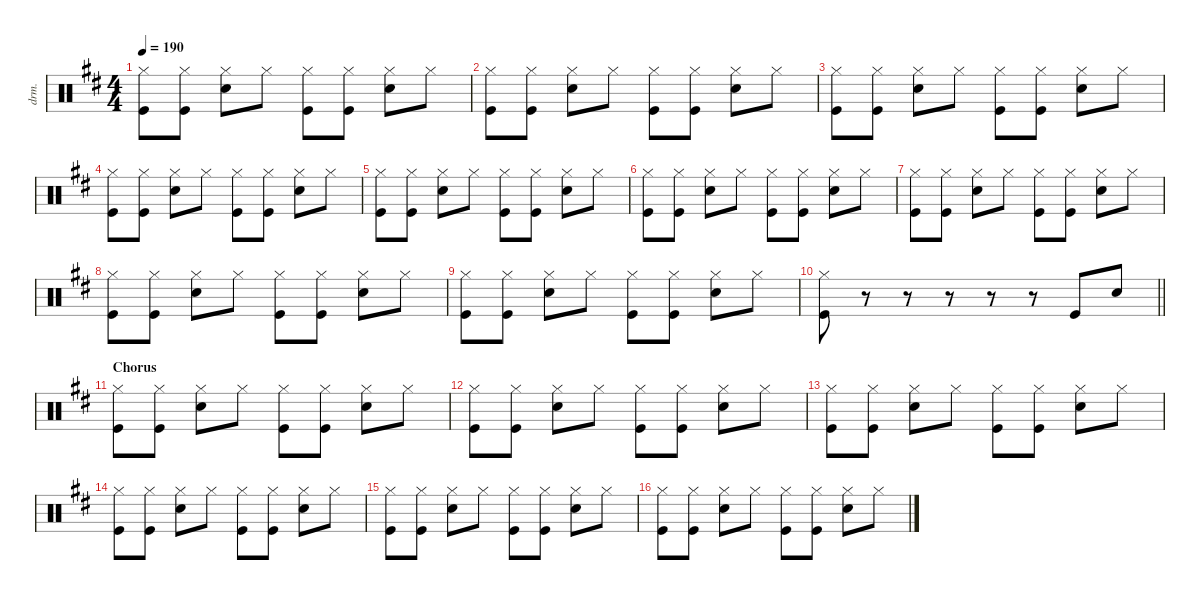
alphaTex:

\defaultSystemsLayout 4
\hideDynamics
\bracketExtendMode nobrackets
\otherSystemsTrackNameOrientation horizontal
\track ("Damon Wilson" "drm.") {instrument percussion}
\staff {score}
\articulation defaults
\ts (4 4)
\tempo 190
\clef neutral
\ks d
("Hi-Hat (closed)"{acc forcenatural} "Kick (hit)"{acc forcenatural}).8{dy f beam Down} ("Hi-Hat (closed)"{acc forcenatural} "Kick (hit)"{acc forcenatural}).8{beam Down} ("Hi-Hat (closed)"{acc forcenatural} "Snare (hit) 2"{acc forcenatural}).8{beam Down} "Hi-Hat (closed)"{acc forcenatural}.8{beam Down} ("Hi-Hat (closed)"{acc forcenatural} "Kick (hit)"{acc forcenatural}).8{beam Down} ("Hi-Hat (closed)"{acc forcenatural} "Kick (hit)"{acc forcenatural}).8{beam Down} ("Hi-Hat (closed)"{acc forcenatural} "Snare (hit) 2"{acc forcenatural}).8{beam Down} "Hi-Hat (closed)"{acc forcenatural}.8{beam Down} |
("Hi-Hat (closed)"{acc forcenatural} "Kick (hit)"{acc forcenatural}).8{beam Down} ("Hi-Hat (closed)"{acc forcenatural} "Kick (hit)"{acc forcenatural}).8{beam Down} ("Hi-Hat (closed)"{acc forcenatural} "Snare (hit) 2"{acc forcenatural}).8{beam Down} "Hi-Hat (closed)"{acc forcenatural}.8{beam Down} ("Hi-Hat (closed)"{acc forcenatural} "Kick (hit)"{acc forcenatural}).8{beam Down} ("Hi-Hat (closed)"{acc forcenatural} "Kick (hit)"{acc forcenatural}).8{beam Down} ("Hi-Hat (closed)"{acc forcenatural} "Snare (hit) 2"{acc forcenatural}).8{beam Down} "Hi-Hat (closed)"{acc forcenatural}.8{beam Down} |
("Hi-Hat (closed)"{acc forcenatural} "Kick (hit)"{acc forcenatural}).8{beam Down} ("Hi-Hat (closed)"{acc forcenatural} "Kick (hit)"{acc forcenatural}).8{beam Down} ("Hi-Hat (closed)"{acc forcenatural} "Snare (hit) 2"{acc forcenatural}).8{beam Down} "Hi-Hat (closed)"{acc forcenatural}.8{beam Down} ("Hi-Hat (closed)"{acc forcenatural} "Kick (hit)"{acc forcenatural}).8{beam Down} ("Hi-Hat (closed)"{acc forcenatural} "Kick (hit)"{acc forcenatural}).8{beam Down} ("Hi-Hat (closed)"{acc forcenatural} "Snare (hit) 2"{acc forcenatural}).8{beam Down} "Hi-Hat (closed)"{acc forcenatural}.8{beam Down} |
("Hi-Hat (closed)"{acc forcenatural} "Kick (hit)"{acc forcenatural}).8{beam Down} ("Hi-Hat (closed)"{acc forcenatural} "Kick (hit)"{acc forcenatural}).8{beam Down} ("Hi-Hat (closed)"{acc forcenatural} "Snare (hit) 2"{acc forcenatural}).8{beam Down} "Hi-Hat (closed)"{acc forcenatural}.8{beam Down} ("Hi-Hat (closed)"{acc forcenatural} "Kick (hit)"{acc forcenatural}).8{beam Down} ("Hi-Hat (closed)"{acc forcenatural} "Kick (hit)"{acc forcenatural}).8{beam Down} ("Hi-Hat (closed)"{acc forcenatural} "Snare (hit) 2"{acc forcenatural}).8{beam Down} "Hi-Hat (closed)"{acc forcenatural}.8{beam Down} |
("Hi-Hat (closed)"{acc forcenatural} "Kick (hit)"{acc forcenatural}).8{beam Down} ("Hi-Hat (closed)"{acc forcenatural} "Kick (hit)"{acc forcenatural}).8{beam Down} ("Hi-Hat (closed)"{acc forcenatural} "Snare (hit) 2"{acc forcenatural}).8{beam Down} "Hi-Hat (closed)"{acc forcenatural}.8{beam Down} ("Hi-Hat (closed)"{acc forcenatural} "Kick (hit)"{acc forcenatural}).8{beam Down} ("Hi-Hat (closed)"{acc forcenatural} "Kick (hit)"{acc forcenatural}).8{beam Down} ("Hi-Hat (closed)"{acc forcenatural} "Snare (hit) 2"{acc forcenatural}).8{beam Down} "Hi-Hat (closed)"{acc forcenatural}.8{beam Down} |
("Hi-Hat (closed)"{acc forcenatural} "Kick (hit)"{acc forcenatural}).8{beam Down} ("Hi-Hat (closed)"{acc forcenatural} "Kick (hit)"{acc forcenatural}).8{beam Down} ("Hi-Hat (closed)"{acc forcenatural} "Snare (hit) 2"{acc forcenatural}).8{beam Down} "Hi-Hat (closed)"{acc forcenatural}.8{beam Down} ("Hi-Hat (closed)"{acc forcenatural} "Kick (hit)"{acc forcenatural}).8{beam Down} ("Hi-Hat (closed)"{acc forcenatural} "Kick (hit)"{acc forcenatural}).8{beam Down} ("Hi-Hat (closed)"{acc forcenatural} "Snare (hit) 2"{acc forcenatural}).8{beam Down} "Hi-Hat (closed)"{acc forcenatural}.8{beam Down} |
("Hi-Hat (closed)"{acc forcenatural} "Kick (hit)"{acc forcenatural}).8{beam Down} ("Hi-Hat (closed)"{acc forcenatural} "Kick (hit)"{acc forcenatural}).8{beam Down} ("Hi-Hat (closed)"{acc forcenatural} "Snare (hit) 2"{acc forcenatural}).8{beam Down} "Hi-Hat (closed)"{acc forcenatural}.8{beam Down} ("Hi-Hat (closed)"{acc forcenatural} "Kick (hit)"{acc forcenatural}).8{beam Down} ("Hi-Hat (closed)"{acc forcenatural} "Kick (hit)"{acc forcenatural}).8{beam Down} ("Hi-Hat (closed)"{acc forcenatural} "Snare (hit) 2"{acc forcenatural}).8{beam Down} "Hi-Hat (closed)"{acc forcenatural}.8{beam Down} |
("Hi-Hat (closed)"{acc forcenatural} "Kick (hit)"{acc forcenatural}).8{beam Down} ("Hi-Hat (closed)"{acc forcenatural} "Kick (hit)"{acc forcenatural}).8{beam Down} ("Hi-Hat (closed)"{acc forcenatural} "Snare (hit) 2"{acc forcenatural}).8{beam Down} "Hi-Hat (closed)"{acc forcenatural}.8{beam Down} ("Hi-Hat (closed)"{acc forcenatural} "Kick (hit)"{acc forcenatural}).8{beam Down} ("Hi-Hat (closed)"{acc forcenatural} "Kick (hit)"{acc forcenatural}).8{beam Down} ("Hi-Hat (closed)"{acc forcenatural} "Snare (hit) 2"{acc forcenatural}).8{beam Down} "Hi-Hat (closed)"{acc forcenatural}.8{beam Down} |
("Hi-Hat (closed)"{acc forcenatural} "Kick (hit)"{acc forcenatural}).8{beam Down} ("Hi-Hat (closed)"{acc forcenatural} "Kick (hit)"{acc forcenatural}).8{beam Down} ("Hi-Hat (closed)"{acc forcenatural} "Snare (hit) 2"{acc forcenatural}).8{beam Down} "Hi-Hat (closed)"{acc forcenatural}.8{beam Down} ("Hi-Hat (closed)"{acc forcenatural} "Kick (hit)"{acc forcenatural}).8{beam Down} ("Hi-Hat (closed)"{acc forcenatural} "Kick (hit)"{acc forcenatural}).8{beam Down} ("Hi-Hat (closed)"{acc forcenatural} "Snare (hit) 2"{acc forcenatural}).8{beam Down} "Hi-Hat (closed)"{acc forcenatural}.8{beam Down} |
\barLineRight lightlight
("Hi-Hat (closed)"{acc forcenatural} "Kick (hit)"{acc forcenatural}).8{beam Down} r.8{beam Down} r.8{beam Down} r.8{beam Down} r.8{beam Down} r.8{beam Down} "Kick (hit)"{acc forcenatural}.8{beam Up} "Snare (hit) 2"{acc forcenatural}.8{beam Up} |
\section ("" "Chorus")
("Hi-Hat (closed)"{acc forcenatural} "Kick (hit)"{acc forcenatural}).8{beam Down} ("Hi-Hat (closed)"{acc forcenatural} "Kick (hit)"{acc forcenatural}).8{beam Down} ("Hi-Hat (closed)"{acc forcenatural} "Snare (hit) 2"{acc forcenatural}).8{beam Down} "Hi-Hat (closed)"{acc forcenatural}.8{beam Down} ("Hi-Hat (closed)"{acc forcenatural} "Kick (hit)"{acc forcenatural}).8{beam Down} ("Hi-Hat (closed)"{acc forcenatural} "Kick (hit)"{acc forcenatural}).8{beam Down} ("Hi-Hat (closed)"{acc forcenatural} "Snare (hit) 2"{acc forcenatural}).8{beam Down} "Hi-Hat (closed)"{acc forcenatural}.8{beam Down} |
("Hi-Hat (closed)"{acc forcenatural} "Kick (hit)"{acc forcenatural}).8{beam Down} ("Hi-Hat (closed)"{acc forcenatural} "Kick (hit)"{acc forcenatural}).8{beam Down} ("Hi-Hat (closed)"{acc forcenatural} "Snare (hit) 2"{acc forcenatural}).8{beam Down} "Hi-Hat (closed)"{acc forcenatural}.8{beam Down} ("Hi-Hat (closed)"{acc forcenatural} "Kick (hit)"{acc forcenatural}).8{beam Down} ("Hi-Hat (closed)"{acc forcenatural} "Kick (hit)"{acc forcenatural}).8{beam Down} ("Hi-Hat (closed)"{acc forcenatural} "Snare (hit) 2"{acc forcenatural}).8{beam Down} "Hi-Hat (closed)"{acc forcenatural}.8{beam Down} |
("Hi-Hat (closed)"{acc forcenatural} "Kick (hit)"{acc forcenatural}).8{beam Down} ("Hi-Hat (closed)"{acc forcenatural} "Kick (hit)"{acc forcenatural}).8{beam Down} ("Hi-Hat (closed)"{acc forcenatural} "Snare (hit) 2"{acc forcenatural}).8{beam Down} "Hi-Hat (closed)"{acc forcenatural}.8{beam Down} ("Hi-Hat (closed)"{acc forcenatural} "Kick (hit)"{acc forcenatural}).8{beam Down} ("Hi-Hat (closed)"{acc forcenatural} "Kick (hit)"{acc forcenatural}).8{beam Down} ("Hi-Hat (closed)"{acc forcenatural} "Snare (hit) 2"{acc forcenatural}).8{beam Down} "Hi-Hat (closed)"{acc forcenatural}.8{beam Down} |
("Hi-Hat (closed)"{acc forcenatural} "Kick (hit)"{acc forcenatural}).8{beam Down} ("Hi-Hat (closed)"{acc forcenatural} "Kick (hit)"{acc forcenatural}).8{beam Down} ("Hi-Hat (closed)"{acc forcenatural} "Snare (hit) 2"{acc forcenatural}).8{beam Down} "Hi-Hat (closed)"{acc forcenatural}.8{beam Down} ("Hi-Hat (closed)"{acc forcenatural} "Kick (hit)"{acc forcenatural}).8{beam Down} ("Hi-Hat (closed)"{acc forcenatural} "Kick (hit)"{acc forcenatural}).8{beam Down} ("Hi-Hat (closed)"{acc forcenatural} "Snare (hit) 2"{acc forcenatural}).8{beam Down} "Hi-Hat (closed)"{acc forcenatural}.8{beam Down} |
("Hi-Hat (closed)"{acc forcenatural} "Kick (hit)"{acc forcenatural}).8{beam Down} ("Hi-Hat (closed)"{acc forcenatural} "Kick (hit)"{acc forcenatural}).8{beam Down} ("Hi-Hat (closed)"{acc forcenatural} "Snare (hit) 2"{acc forcenatural}).8{beam Down} "Hi-Hat (closed)"{acc forcenatural}.8{beam Down} ("Hi-Hat (closed)"{acc forcenatural} "Kick (hit)"{acc forcenatural}).8{beam Down} ("Hi-Hat (closed)"{acc forcenatural} "Kick (hit)"{acc forcenatural}).8{beam Down} ("Hi-Hat (closed)"{acc forcenatural} "Snare (hit) 2"{acc forcenatural}).8{beam Down} "Hi-Hat (closed)"{acc forcenatural}.8{beam Down} |
("Hi-Hat (closed)"{acc forcenatural} "Kick (hit)"{acc forcenatural}).8{beam Down} ("Hi-Hat (closed)"{acc forcenatural} "Kick (hit)"{acc forcenatural}).8{beam Down} ("Hi-Hat (closed)"{acc forcenatural} "Snare (hit) 2"{acc forcenatural}).8{beam Down} "Hi-Hat (closed)"{acc forcenatural}.8{beam Down} ("Hi-Hat (closed)"{acc forcenatural} "Kick (hit)"{acc forcenatural}).8{beam Down} ("Hi-Hat (closed)"{acc forcenatural} "Kick (hit)"{acc forcenatural}).8{beam Down} ("Hi-Hat (closed)"{acc forcenatural} "Snare (hit) 2"{acc forcenatural}).8{beam Down} "Hi-Hat (closed)"{acc forcenatural}.8{beam Down}
